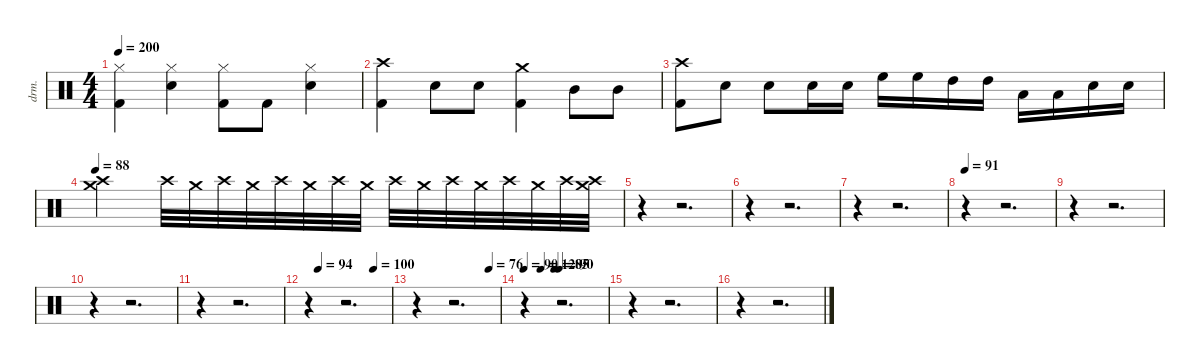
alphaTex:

\defaultSystemsLayout 4
\hideDynamics
\bracketExtendMode nobrackets
\track ("Drums" "drm.") {instrument percussion}
\staff {score}
\articulation defaults
\ts (4 4)
\tempo 200
\clef neutral
\ks c
("Hi-Hat (closed)" "Kick (hit) 2").4{dy f} ("Hi-Hat (closed)" "Snare (hit) 2").4 ("Hi-Hat (closed)" "Kick (hit) 2").8 "Kick (hit) 2".8 ("Hi-Hat (closed)" "Snare (hit) 2").4 |
("Crash high (hit)" "Kick (hit) 2").4 "Snare (hit) 2".8 "Snare (hit) 2".8{dy ff} ("Crash medium (hit)" "Kick (hit) 2").4 "Mid Tom (hit)".8{dy f} "Mid Tom (hit)".8{dy ff} |
("Crash high (hit)" "Kick (hit) 2").8{dy f} "Snare (hit) 2".8{dy ff} "Snare (hit) 2".8 "Snare (hit) 2".16 "Snare (hit) 2".16 "High Floor Tom (hit)".16 "High Floor Tom (hit)".16 "High Tom (hit)".16 "High Tom (hit)".16 "Low Tom (hit)".16 "Low Tom (hit)".16 "Snare (hit) 2".16{dy f} "Snare (hit) 2".16 |
\tempo 88
("Crash high (hit)" "Crash medium (hit)").2 "Crash high (hit)".32{dy p} "Crash medium (hit)".32{dy pp} "Crash high (hit)".32 "Crash medium (hit)".32 "Crash high (hit)".32{dy p} "Crash medium (hit)".32 "Crash high (hit)".32 "Crash medium (hit)".32 "Crash high (hit)".32{dy mp} "Crash medium (hit)".32 "Crash high (hit)".32 "Crash medium (hit)".32 "Crash high (hit)".32 "Crash medium (hit)".32 "Crash high (hit)".32 ("Crash medium (hit)" "Crash high (hit)").32 |
r.4 r.2{d} |
r.4 r.2{d} |
r.4 r.2{d} |
\tempo 91
r.4 r.2{d} |
r.4 r.2{d} |
r.4 r.2{d} |
r.4 r.2{d} |
\tempo (94 0.125)
\tempo (100 0.791667)
r.4 r.2{d} |
\tempo (76 0.875)
r.4 r.2{d} |
\tempo 90
\tempo (120 0.205479)
\tempo (85 0.369863)
\tempo (90 0.424658)
r.4 r.2{d} |
r.4 r.2{d} |
r.4 r.2{d}
